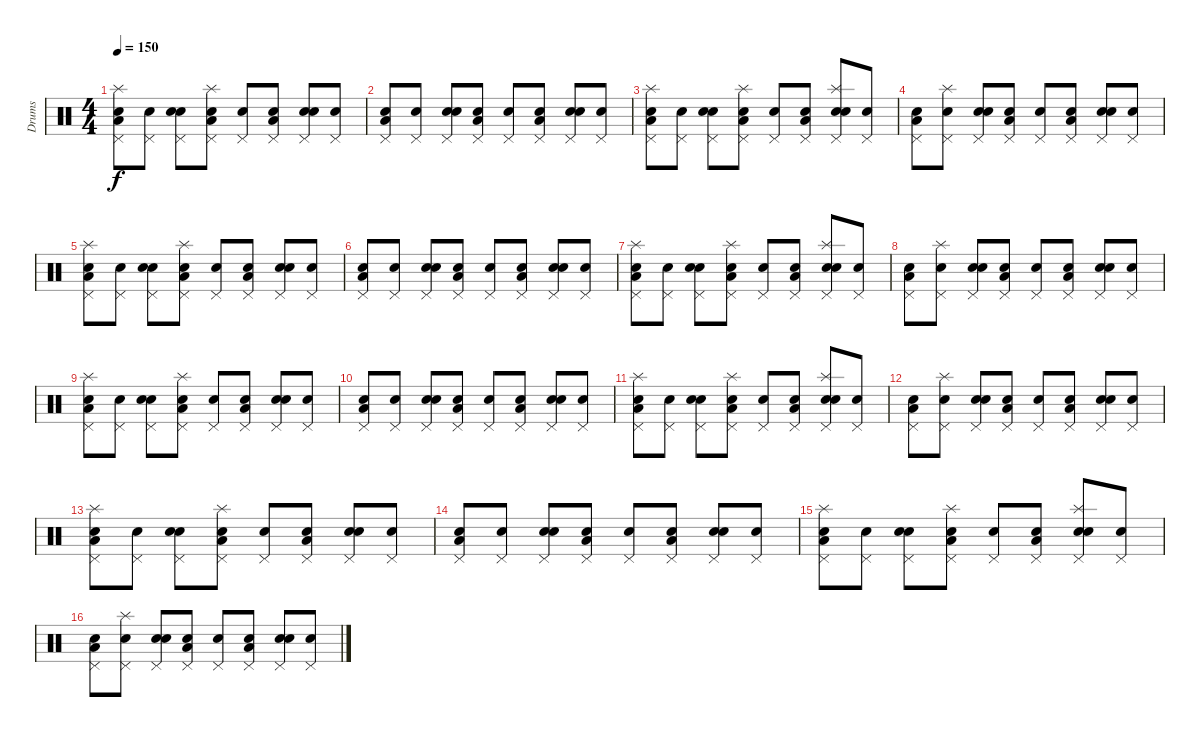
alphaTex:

\track ("Drums" "Drums") {instrument percussion}
\staff {score}
\articulation defaults
\ts (4 4)
\tempo 150
\clef neutral
\ks c
("Snare (hit)" "Low Floor Tom (hit)" "Pedal Hi-Hat (hit)" "Splash (hit)").8{dy f} ("Snare (hit)" "Pedal Hi-Hat (hit)").8 ("Snare (hit)" "Electric Snare (hit)" "Pedal Hi-Hat (hit)").8 ("Snare (hit)" "Low Floor Tom (hit)" "Pedal Hi-Hat (hit)" "Splash (hit)").8 ("Snare (hit)" "Pedal Hi-Hat (hit)").8 ("Snare (hit)" "Low Floor Tom (hit)" "Pedal Hi-Hat (hit)").8 ("Snare (hit)" "Electric Snare (hit)" "Pedal Hi-Hat (hit)").8 ("Snare (hit)" "Pedal Hi-Hat (hit)").8 |
("Snare (hit)" "Low Floor Tom (hit)" "Pedal Hi-Hat (hit)").8 ("Snare (hit)" "Pedal Hi-Hat (hit)").8 ("Snare (hit)" "Electric Snare (hit)" "Pedal Hi-Hat (hit)").8 ("Snare (hit)" "Low Floor Tom (hit)" "Pedal Hi-Hat (hit)").8 ("Snare (hit)" "Pedal Hi-Hat (hit)").8 ("Snare (hit)" "Low Floor Tom (hit)" "Pedal Hi-Hat (hit)").8 ("Snare (hit)" "Electric Snare (hit)" "Pedal Hi-Hat (hit)").8 ("Snare (hit)" "Pedal Hi-Hat (hit)").8 |
("Snare (hit)" "Low Floor Tom (hit)" "Pedal Hi-Hat (hit)" "Splash (hit)").8 ("Snare (hit)" "Pedal Hi-Hat (hit)").8 ("Snare (hit)" "Electric Snare (hit)" "Pedal Hi-Hat (hit)").8 ("Snare (hit)" "Low Floor Tom (hit)" "Pedal Hi-Hat (hit)" "Splash (hit)").8 ("Snare (hit)" "Pedal Hi-Hat (hit)").8 ("Snare (hit)" "Low Floor Tom (hit)" "Pedal Hi-Hat (hit)").8 ("Snare (hit)" "Electric Snare (hit)" "Pedal Hi-Hat (hit)" "Splash (hit)").8 ("Snare (hit)" "Pedal Hi-Hat (hit)").8 |
("Snare (hit)" "Low Floor Tom (hit)" "Pedal Hi-Hat (hit)").8 ("Snare (hit)" "Pedal Hi-Hat (hit)" "Splash (hit)").8 ("Snare (hit)" "Electric Snare (hit)" "Pedal Hi-Hat (hit)").8 ("Snare (hit)" "Low Floor Tom (hit)" "Pedal Hi-Hat (hit)").8 ("Snare (hit)" "Pedal Hi-Hat (hit)").8 ("Snare (hit)" "Low Floor Tom (hit)" "Pedal Hi-Hat (hit)").8 ("Snare (hit)" "Electric Snare (hit)" "Pedal Hi-Hat (hit)").8 ("Snare (hit)" "Pedal Hi-Hat (hit)").8 |
("Snare (hit)" "Low Floor Tom (hit)" "Pedal Hi-Hat (hit)" "Splash (hit)").8 ("Snare (hit)" "Pedal Hi-Hat (hit)").8 ("Snare (hit)" "Electric Snare (hit)" "Pedal Hi-Hat (hit)").8 ("Snare (hit)" "Low Floor Tom (hit)" "Pedal Hi-Hat (hit)" "Splash (hit)").8 ("Snare (hit)" "Pedal Hi-Hat (hit)").8 ("Snare (hit)" "Low Floor Tom (hit)" "Pedal Hi-Hat (hit)").8 ("Snare (hit)" "Electric Snare (hit)" "Pedal Hi-Hat (hit)").8 ("Snare (hit)" "Pedal Hi-Hat (hit)").8 |
("Snare (hit)" "Low Floor Tom (hit)" "Pedal Hi-Hat (hit)").8 ("Snare (hit)" "Pedal Hi-Hat (hit)").8 ("Snare (hit)" "Electric Snare (hit)" "Pedal Hi-Hat (hit)").8 ("Snare (hit)" "Low Floor Tom (hit)" "Pedal Hi-Hat (hit)").8 ("Snare (hit)" "Pedal Hi-Hat (hit)").8 ("Snare (hit)" "Low Floor Tom (hit)" "Pedal Hi-Hat (hit)").8 ("Snare (hit)" "Electric Snare (hit)" "Pedal Hi-Hat (hit)").8 ("Snare (hit)" "Pedal Hi-Hat (hit)").8 |
("Snare (hit)" "Low Floor Tom (hit)" "Pedal Hi-Hat (hit)" "Splash (hit)").8 ("Snare (hit)" "Pedal Hi-Hat (hit)").8 ("Snare (hit)" "Electric Snare (hit)" "Pedal Hi-Hat (hit)").8 ("Snare (hit)" "Low Floor Tom (hit)" "Pedal Hi-Hat (hit)" "Splash (hit)").8 ("Snare (hit)" "Pedal Hi-Hat (hit)").8 ("Snare (hit)" "Low Floor Tom (hit)" "Pedal Hi-Hat (hit)").8 ("Snare (hit)" "Electric Snare (hit)" "Pedal Hi-Hat (hit)" "Splash (hit)").8 ("Snare (hit)" "Pedal Hi-Hat (hit)").8 |
("Snare (hit)" "Low Floor Tom (hit)" "Pedal Hi-Hat (hit)").8 ("Snare (hit)" "Pedal Hi-Hat (hit)" "Splash (hit)").8 ("Snare (hit)" "Electric Snare (hit)" "Pedal Hi-Hat (hit)").8 ("Snare (hit)" "Low Floor Tom (hit)" "Pedal Hi-Hat (hit)").8 ("Snare (hit)" "Pedal Hi-Hat (hit)").8 ("Snare (hit)" "Low Floor Tom (hit)" "Pedal Hi-Hat (hit)").8 ("Snare (hit)" "Electric Snare (hit)" "Pedal Hi-Hat (hit)").8 ("Snare (hit)" "Pedal Hi-Hat (hit)").8 |
("Snare (hit)" "Low Floor Tom (hit)" "Pedal Hi-Hat (hit)" "Splash (hit)").8 ("Snare (hit)" "Pedal Hi-Hat (hit)").8 ("Snare (hit)" "Electric Snare (hit)" "Pedal Hi-Hat (hit)").8 ("Snare (hit)" "Low Floor Tom (hit)" "Pedal Hi-Hat (hit)" "Splash (hit)").8 ("Snare (hit)" "Pedal Hi-Hat (hit)").8 ("Snare (hit)" "Low Floor Tom (hit)" "Pedal Hi-Hat (hit)").8 ("Snare (hit)" "Electric Snare (hit)" "Pedal Hi-Hat (hit)").8 ("Snare (hit)" "Pedal Hi-Hat (hit)").8 |
("Snare (hit)" "Low Floor Tom (hit)" "Pedal Hi-Hat (hit)").8 ("Snare (hit)" "Pedal Hi-Hat (hit)").8 ("Snare (hit)" "Electric Snare (hit)" "Pedal Hi-Hat (hit)").8 ("Snare (hit)" "Low Floor Tom (hit)" "Pedal Hi-Hat (hit)").8 ("Snare (hit)" "Pedal Hi-Hat (hit)").8 ("Snare (hit)" "Low Floor Tom (hit)" "Pedal Hi-Hat (hit)").8 ("Snare (hit)" "Electric Snare (hit)" "Pedal Hi-Hat (hit)").8 ("Snare (hit)" "Pedal Hi-Hat (hit)").8 |
("Snare (hit)" "Low Floor Tom (hit)" "Pedal Hi-Hat (hit)" "Splash (hit)").8 ("Snare (hit)" "Pedal Hi-Hat (hit)").8 ("Snare (hit)" "Electric Snare (hit)" "Pedal Hi-Hat (hit)").8 ("Snare (hit)" "Low Floor Tom (hit)" "Pedal Hi-Hat (hit)" "Splash (hit)").8 ("Snare (hit)" "Pedal Hi-Hat (hit)").8 ("Snare (hit)" "Low Floor Tom (hit)" "Pedal Hi-Hat (hit)").8 ("Snare (hit)" "Electric Snare (hit)" "Pedal Hi-Hat (hit)" "Splash (hit)").8 ("Snare (hit)" "Pedal Hi-Hat (hit)").8 |
("Snare (hit)" "Low Floor Tom (hit)" "Pedal Hi-Hat (hit)").8 ("Snare (hit)" "Pedal Hi-Hat (hit)" "Splash (hit)").8 ("Snare (hit)" "Electric Snare (hit)" "Pedal Hi-Hat (hit)").8 ("Snare (hit)" "Low Floor Tom (hit)" "Pedal Hi-Hat (hit)").8 ("Snare (hit)" "Pedal Hi-Hat (hit)").8 ("Snare (hit)" "Low Floor Tom (hit)" "Pedal Hi-Hat (hit)").8 ("Snare (hit)" "Electric Snare (hit)" "Pedal Hi-Hat (hit)").8 ("Snare (hit)" "Pedal Hi-Hat (hit)").8 |
("Snare (hit)" "Low Floor Tom (hit)" "Pedal Hi-Hat (hit)" "Splash (hit)").8 ("Snare (hit)" "Pedal Hi-Hat (hit)").8 ("Snare (hit)" "Electric Snare (hit)" "Pedal Hi-Hat (hit)").8 ("Snare (hit)" "Low Floor Tom (hit)" "Pedal Hi-Hat (hit)" "Splash (hit)").8 ("Snare (hit)" "Pedal Hi-Hat (hit)").8 ("Snare (hit)" "Low Floor Tom (hit)" "Pedal Hi-Hat (hit)").8 ("Snare (hit)" "Electric Snare (hit)" "Pedal Hi-Hat (hit)").8 ("Snare (hit)" "Pedal Hi-Hat (hit)").8 |
("Snare (hit)" "Low Floor Tom (hit)" "Pedal Hi-Hat (hit)").8 ("Snare (hit)" "Pedal Hi-Hat (hit)").8 ("Snare (hit)" "Electric Snare (hit)" "Pedal Hi-Hat (hit)").8 ("Snare (hit)" "Low Floor Tom (hit)" "Pedal Hi-Hat (hit)").8 ("Snare (hit)" "Pedal Hi-Hat (hit)").8 ("Snare (hit)" "Low Floor Tom (hit)" "Pedal Hi-Hat (hit)").8 ("Snare (hit)" "Electric Snare (hit)" "Pedal Hi-Hat (hit)").8 ("Snare (hit)" "Pedal Hi-Hat (hit)").8 |
("Snare (hit)" "Low Floor Tom (hit)" "Pedal Hi-Hat (hit)" "Splash (hit)").8 ("Snare (hit)" "Pedal Hi-Hat (hit)").8 ("Snare (hit)" "Electric Snare (hit)" "Pedal Hi-Hat (hit)").8 ("Snare (hit)" "Low Floor Tom (hit)" "Pedal Hi-Hat (hit)" "Splash (hit)").8 ("Snare (hit)" "Pedal Hi-Hat (hit)").8 ("Snare (hit)" "Low Floor Tom (hit)" "Pedal Hi-Hat (hit)").8 ("Snare (hit)" "Electric Snare (hit)" "Pedal Hi-Hat (hit)" "Splash (hit)").8 ("Snare (hit)" "Pedal Hi-Hat (hit)").8 |
("Snare (hit)" "Low Floor Tom (hit)" "Pedal Hi-Hat (hit)").8 ("Snare (hit)" "Pedal Hi-Hat (hit)" "Splash (hit)").8 ("Snare (hit)" "Electric Snare (hit)" "Pedal Hi-Hat (hit)").8 ("Snare (hit)" "Low Floor Tom (hit)" "Pedal Hi-Hat (hit)").8 ("Snare (hit)" "Pedal Hi-Hat (hit)").8 ("Snare (hit)" "Low Floor Tom (hit)" "Pedal Hi-Hat (hit)").8 ("Snare (hit)" "Electric Snare (hit)" "Pedal Hi-Hat (hit)").8 ("Snare (hit)" "Pedal Hi-Hat (hit)").8
